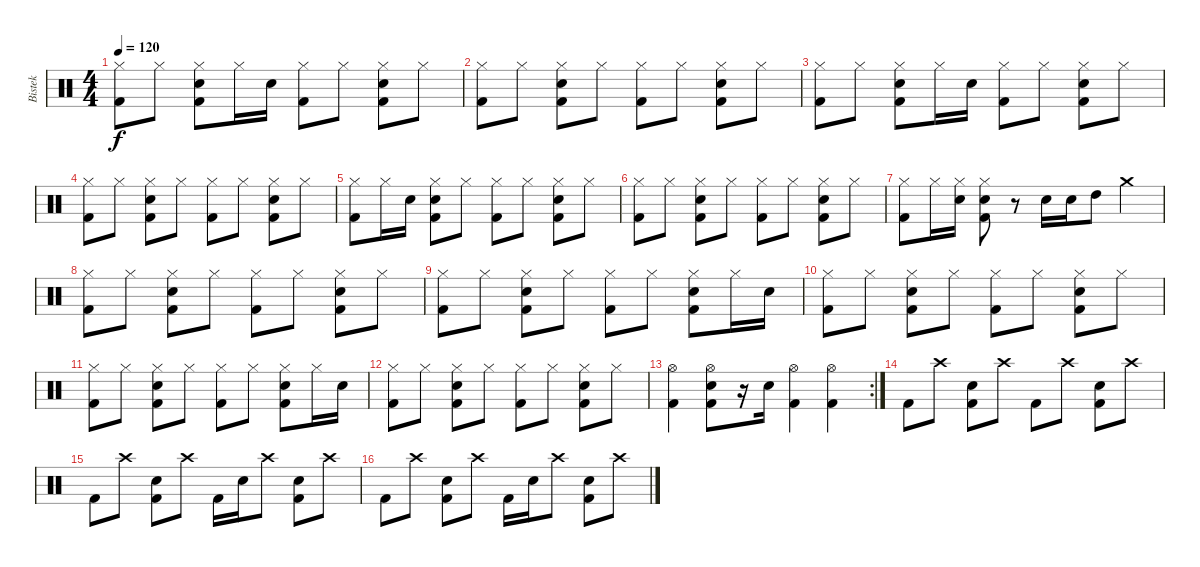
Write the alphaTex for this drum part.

\track ("Bistek" "Bistek") {instrument percussion}
\staff {score}
\articulation defaults
\ts (4 4)
\tempo 120
\clef neutral
\ks c
("Hi-Hat (closed)" "Kick (hit) 2").8{dy f} "Hi-Hat (closed)".8 ("Hi-Hat (closed)" "Snare (hit) 2" "Kick (hit) 2").8 "Hi-Hat (closed)".16 "Snare (hit) 2".16 ("Hi-Hat (closed)" "Kick (hit) 2").8 "Hi-Hat (closed)".8 ("Hi-Hat (closed)" "Snare (hit) 2" "Kick (hit) 2").8 "Hi-Hat (closed)".8 |
("Hi-Hat (closed)" "Kick (hit) 2").8 "Hi-Hat (closed)".8 ("Hi-Hat (closed)" "Snare (hit) 2" "Kick (hit) 2").8 "Hi-Hat (closed)".8 ("Hi-Hat (closed)" "Kick (hit) 2").8 "Hi-Hat (closed)".8 ("Hi-Hat (closed)" "Snare (hit) 2" "Kick (hit) 2").8 "Hi-Hat (closed)".8 |
("Hi-Hat (closed)" "Kick (hit) 2").8 "Hi-Hat (closed)".8 ("Hi-Hat (closed)" "Snare (hit) 2" "Kick (hit) 2").8 "Hi-Hat (closed)".16 "Snare (hit) 2".16 ("Hi-Hat (closed)" "Kick (hit) 2").8 "Hi-Hat (closed)".8 ("Hi-Hat (closed)" "Snare (hit) 2" "Kick (hit) 2").8 "Hi-Hat (closed)".8 |
("Hi-Hat (closed)" "Kick (hit) 2").8 "Hi-Hat (closed)".8 ("Hi-Hat (closed)" "Snare (hit) 2" "Kick (hit) 2").8 "Hi-Hat (closed)".8 ("Hi-Hat (closed)" "Kick (hit) 2").8 "Hi-Hat (closed)".8 ("Hi-Hat (closed)" "Snare (hit) 2" "Kick (hit) 2").8 "Hi-Hat (closed)".8 |
("Hi-Hat (closed)" "Kick (hit) 2").8 "Hi-Hat (closed)".16 "Snare (hit) 2".16 ("Hi-Hat (closed)" "Snare (hit) 2" "Kick (hit) 2").8 "Hi-Hat (closed)".8 ("Hi-Hat (closed)" "Kick (hit) 2").8 "Hi-Hat (closed)".8 ("Hi-Hat (closed)" "Snare (hit) 2" "Kick (hit) 2").8 "Hi-Hat (closed)".8 |
("Hi-Hat (closed)" "Kick (hit) 2").8 "Hi-Hat (closed)".8 ("Hi-Hat (closed)" "Snare (hit) 2" "Kick (hit) 2").8 "Hi-Hat (closed)".8 ("Hi-Hat (closed)" "Kick (hit) 2").8 "Hi-Hat (closed)".8 ("Hi-Hat (closed)" "Snare (hit) 2" "Kick (hit) 2").8 "Hi-Hat (closed)".8 |
("Hi-Hat (closed)" "Kick (hit) 2").8 "Hi-Hat (closed)".16 ("Hi-Hat (closed)" "Snare (hit) 2").16 ("Hi-Hat (closed)" "Snare (hit) 2" "Kick (hit) 2").8 r.8 "Snare (hit) 2".16 "Snare (hit) 2".16 "High Tom (hit)".8 "Crash medium (hit)".4 |
("Hi-Hat (closed)" "Kick (hit) 2").8 "Hi-Hat (closed)".8 ("Hi-Hat (closed)" "Snare (hit) 2" "Kick (hit) 2").8 "Hi-Hat (closed)".8 ("Hi-Hat (closed)" "Kick (hit) 2").8 "Hi-Hat (closed)".8 ("Hi-Hat (closed)" "Snare (hit) 2" "Kick (hit) 2").8 "Hi-Hat (closed)".8 |
("Hi-Hat (closed)" "Kick (hit) 2").8 "Hi-Hat (closed)".8 ("Hi-Hat (closed)" "Snare (hit) 2" "Kick (hit) 2").8 "Hi-Hat (closed)".8 ("Hi-Hat (closed)" "Kick (hit) 2").8 "Hi-Hat (closed)".8 ("Hi-Hat (closed)" "Snare (hit) 2" "Kick (hit) 2").8 "Hi-Hat (closed)".16 "Snare (hit) 2".16 |
("Hi-Hat (closed)" "Kick (hit) 2").8 "Hi-Hat (closed)".8 ("Hi-Hat (closed)" "Snare (hit) 2" "Kick (hit) 2").8 "Hi-Hat (closed)".8 ("Hi-Hat (closed)" "Kick (hit) 2").8 "Hi-Hat (closed)".8 ("Hi-Hat (closed)" "Snare (hit) 2" "Kick (hit) 2").8 "Hi-Hat (closed)".8 |
("Hi-Hat (closed)" "Kick (hit) 2").8 "Hi-Hat (closed)".8 ("Hi-Hat (closed)" "Snare (hit) 2" "Kick (hit) 2").8 "Hi-Hat (closed)".8 ("Hi-Hat (closed)" "Kick (hit) 2").8 "Hi-Hat (closed)".8 ("Hi-Hat (closed)" "Snare (hit) 2" "Kick (hit) 2").8 "Hi-Hat (closed)".16 "Snare (hit) 2".16 |
("Hi-Hat (closed)" "Kick (hit) 2").8 "Hi-Hat (closed)".8 ("Hi-Hat (closed)" "Snare (hit) 2" "Kick (hit) 2").8 "Hi-Hat (closed)".8 ("Hi-Hat (closed)" "Kick (hit) 2").8 "Hi-Hat (closed)".8 ("Hi-Hat (closed)" "Snare (hit) 2" "Kick (hit) 2").8 "Hi-Hat (closed)".8 |
\rc 2
("Hi-Hat (open)" "Kick (hit) 2").4 ("Hi-Hat (open)" "Snare (hit) 2" "Kick (hit) 2").8 r.16 "Snare (hit) 2".16 ("Hi-Hat (open)" "Kick (hit) 2").4 ("Hi-Hat (open)" "Kick (hit) 2").4 |
"Kick (hit) 2".8 "Crash high (hit)".8 ("Snare (hit) 2" "Kick (hit) 2").8 "Crash high (hit)".8 "Kick (hit) 2".8 "Crash high (hit)".8 ("Snare (hit) 2" "Kick (hit) 2").8 "Crash high (hit)".8 |
"Kick (hit) 2".8 "Crash high (hit)".8 ("Snare (hit) 2" "Kick (hit) 2").8 "Crash high (hit)".8 "Kick (hit) 2".16 "Snare (hit) 2".16 "Crash high (hit)".8 ("Snare (hit) 2" "Kick (hit) 2").8 "Crash high (hit)".8 |
"Kick (hit) 2".8 "Crash high (hit)".8 ("Snare (hit) 2" "Kick (hit) 2").8 "Crash high (hit)".8 "Kick (hit) 2".16 "Snare (hit) 2".16 "Crash high (hit)".8 ("Snare (hit) 2" "Kick (hit) 2").8 "Crash high (hit)".8
